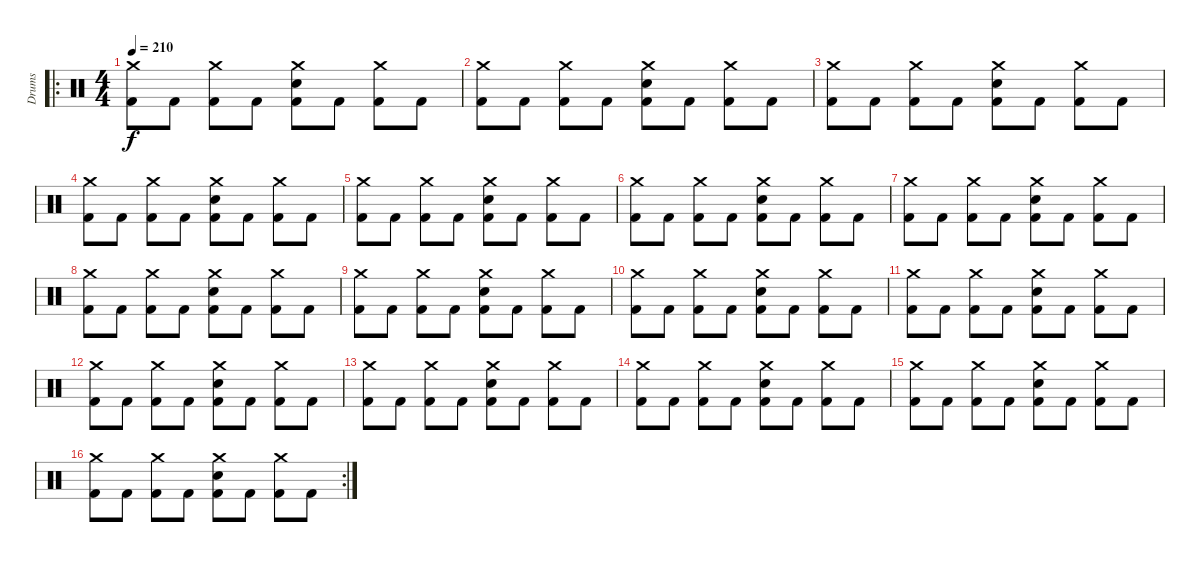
\track ("Drums" "Drums") {instrument percussion}
\staff {score}
\articulation defaults
\ro
\ts (4 4)
\tempo 210
\clef neutral
\ks c
("Crash medium (hit)" "Kick (hit) 2").8{dy f} "Kick (hit) 2".8 ("Crash medium (hit)" "Kick (hit) 2").8 "Kick (hit) 2".8 ("Crash medium (hit)" "Electric Snare (hit)" "Kick (hit) 2").8 "Kick (hit) 2".8 ("Crash medium (hit)" "Kick (hit) 2").8 "Kick (hit) 2".8 |
("Crash medium (hit)" "Kick (hit) 2").8 "Kick (hit) 2".8 ("Crash medium (hit)" "Kick (hit) 2").8 "Kick (hit) 2".8 ("Crash medium (hit)" "Electric Snare (hit)" "Kick (hit) 2").8 "Kick (hit) 2".8 ("Crash medium (hit)" "Kick (hit) 2").8 "Kick (hit) 2".8 |
("Crash medium (hit)" "Kick (hit) 2").8 "Kick (hit) 2".8 ("Crash medium (hit)" "Kick (hit) 2").8 "Kick (hit) 2".8 ("Crash medium (hit)" "Electric Snare (hit)" "Kick (hit) 2").8 "Kick (hit) 2".8 ("Crash medium (hit)" "Kick (hit) 2").8 "Kick (hit) 2".8 |
("Crash medium (hit)" "Kick (hit) 2").8 "Kick (hit) 2".8 ("Crash medium (hit)" "Kick (hit) 2").8 "Kick (hit) 2".8 ("Crash medium (hit)" "Electric Snare (hit)" "Kick (hit) 2").8 "Kick (hit) 2".8 ("Crash medium (hit)" "Kick (hit) 2").8 "Kick (hit) 2".8 |
("Crash medium (hit)" "Kick (hit) 2").8 "Kick (hit) 2".8 ("Crash medium (hit)" "Kick (hit) 2").8 "Kick (hit) 2".8 ("Crash medium (hit)" "Electric Snare (hit)" "Kick (hit) 2").8 "Kick (hit) 2".8 ("Crash medium (hit)" "Kick (hit) 2").8 "Kick (hit) 2".8 |
("Crash medium (hit)" "Kick (hit) 2").8 "Kick (hit) 2".8 ("Crash medium (hit)" "Kick (hit) 2").8 "Kick (hit) 2".8 ("Crash medium (hit)" "Electric Snare (hit)" "Kick (hit) 2").8 "Kick (hit) 2".8 ("Crash medium (hit)" "Kick (hit) 2").8 "Kick (hit) 2".8 |
("Crash medium (hit)" "Kick (hit) 2").8 "Kick (hit) 2".8 ("Crash medium (hit)" "Kick (hit) 2").8 "Kick (hit) 2".8 ("Crash medium (hit)" "Electric Snare (hit)" "Kick (hit) 2").8 "Kick (hit) 2".8 ("Crash medium (hit)" "Kick (hit) 2").8 "Kick (hit) 2".8 |
("Crash medium (hit)" "Kick (hit) 2").8 "Kick (hit) 2".8 ("Crash medium (hit)" "Kick (hit) 2").8 "Kick (hit) 2".8 ("Crash medium (hit)" "Electric Snare (hit)" "Kick (hit) 2").8 "Kick (hit) 2".8 ("Crash medium (hit)" "Kick (hit) 2").8 "Kick (hit) 2".8 |
("Crash medium (hit)" "Kick (hit) 2").8 "Kick (hit) 2".8 ("Crash medium (hit)" "Kick (hit) 2").8 "Kick (hit) 2".8 ("Crash medium (hit)" "Electric Snare (hit)" "Kick (hit) 2").8 "Kick (hit) 2".8 ("Crash medium (hit)" "Kick (hit) 2").8 "Kick (hit) 2".8 |
("Crash medium (hit)" "Kick (hit) 2").8 "Kick (hit) 2".8 ("Crash medium (hit)" "Kick (hit) 2").8 "Kick (hit) 2".8 ("Crash medium (hit)" "Electric Snare (hit)" "Kick (hit) 2").8 "Kick (hit) 2".8 ("Crash medium (hit)" "Kick (hit) 2").8 "Kick (hit) 2".8 |
("Crash medium (hit)" "Kick (hit) 2").8 "Kick (hit) 2".8 ("Crash medium (hit)" "Kick (hit) 2").8 "Kick (hit) 2".8 ("Crash medium (hit)" "Electric Snare (hit)" "Kick (hit) 2").8 "Kick (hit) 2".8 ("Crash medium (hit)" "Kick (hit) 2").8 "Kick (hit) 2".8 |
("Crash medium (hit)" "Kick (hit) 2").8 "Kick (hit) 2".8 ("Crash medium (hit)" "Kick (hit) 2").8 "Kick (hit) 2".8 ("Crash medium (hit)" "Electric Snare (hit)" "Kick (hit) 2").8 "Kick (hit) 2".8 ("Crash medium (hit)" "Kick (hit) 2").8 "Kick (hit) 2".8 |
("Crash medium (hit)" "Kick (hit) 2").8 "Kick (hit) 2".8 ("Crash medium (hit)" "Kick (hit) 2").8 "Kick (hit) 2".8 ("Crash medium (hit)" "Electric Snare (hit)" "Kick (hit) 2").8 "Kick (hit) 2".8 ("Crash medium (hit)" "Kick (hit) 2").8 "Kick (hit) 2".8 |
("Crash medium (hit)" "Kick (hit) 2").8 "Kick (hit) 2".8 ("Crash medium (hit)" "Kick (hit) 2").8 "Kick (hit) 2".8 ("Crash medium (hit)" "Electric Snare (hit)" "Kick (hit) 2").8 "Kick (hit) 2".8 ("Crash medium (hit)" "Kick (hit) 2").8 "Kick (hit) 2".8 |
("Crash medium (hit)" "Kick (hit) 2").8 "Kick (hit) 2".8 ("Crash medium (hit)" "Kick (hit) 2").8 "Kick (hit) 2".8 ("Crash medium (hit)" "Electric Snare (hit)" "Kick (hit) 2").8 "Kick (hit) 2".8 ("Crash medium (hit)" "Kick (hit) 2").8 "Kick (hit) 2".8 |
\rc 2
("Crash medium (hit)" "Kick (hit) 2").8 "Kick (hit) 2".8 ("Crash medium (hit)" "Kick (hit) 2").8 "Kick (hit) 2".8 ("Crash medium (hit)" "Electric Snare (hit)" "Kick (hit) 2").8 "Kick (hit) 2".8 ("Crash medium (hit)" "Kick (hit) 2").8 "Kick (hit) 2".8
